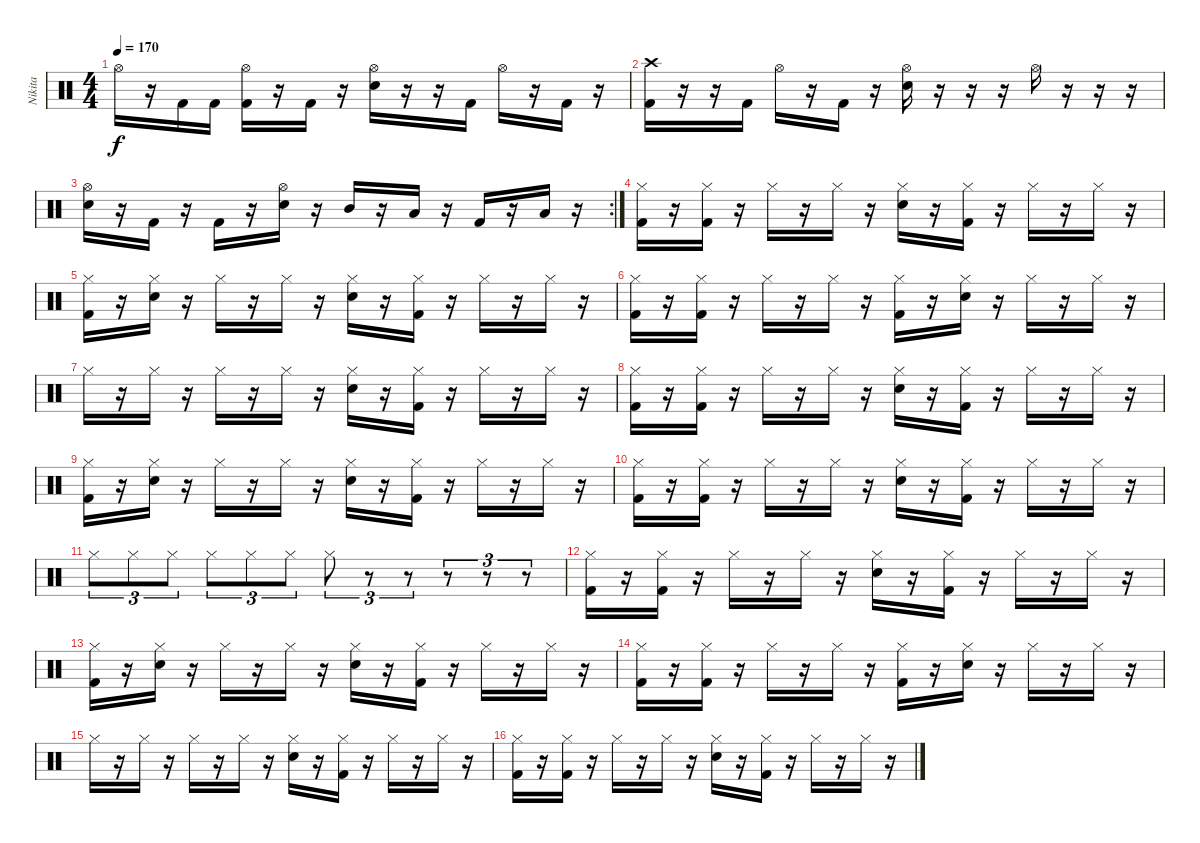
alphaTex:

\track ("Nikita" "Nikita") {instrument percussion}
\staff {score}
\articulation defaults
\ts (4 4)
\tempo 170
\clef neutral
\ks c "Hi-Hat (open)".16{dy f}
r.16 "Kick (hit) 2".16 "Kick (hit) 2".16 ("Hi-Hat (open)" "Kick (hit) 2").16 r.16 "Kick (hit) 2".16 r.16 ("Hi-Hat (open)" "Electric Snare (hit)").16 r.16 r.16 "Kick (hit) 2".16 "Hi-Hat (open)".16 r.16 "Kick (hit) 2".16 r.16 |
("Crash high (hit)" "Kick (hit) 2").16 r.16 r.16 "Kick (hit) 2".16 "Hi-Hat (open)".16 r.16 "Kick (hit) 2".16 r.16 ("Hi-Hat (open)" "Electric Snare (hit)").16 r.16 r.16 r.16 "Hi-Hat (open)".16 r.16 r.16 r.16 |
\rc 2
("Hi-Hat (open)" "Electric Snare (hit)").16 r.16 "Kick (hit) 2".16 r.16 "Kick (hit) 2".16 r.16 ("Hi-Hat (open)" "Electric Snare (hit)").16 r.16 "Mid Tom (hit)".16 r.16 "Low Tom (hit)".16 r.16 "Kick (hit) 2".16 r.16 "Low Tom (hit)".16 r.16 |
("Hi-Hat (closed)" "Kick (hit) 2").16 r.16 ("Hi-Hat (closed)" "Kick (hit) 2").16 r.16 "Hi-Hat (closed)".16 r.16 "Hi-Hat (closed)".16 r.16 ("Hi-Hat (closed)" "Electric Snare (hit)").16 r.16 ("Hi-Hat (closed)" "Kick (hit) 2").16 r.16 "Hi-Hat (closed)".16 r.16 "Hi-Hat (closed)".16 r.16 |
("Hi-Hat (closed)" "Kick (hit) 2").16 r.16 ("Hi-Hat (closed)" "Electric Snare (hit)").16 r.16 "Hi-Hat (closed)".16 r.16 "Hi-Hat (closed)".16 r.16 ("Hi-Hat (closed)" "Electric Snare (hit)").16 r.16 ("Hi-Hat (closed)" "Kick (hit) 2").16 r.16 "Hi-Hat (closed)".16 r.16 "Hi-Hat (closed)".16 r.16 |
("Hi-Hat (closed)" "Kick (hit) 2").16 r.16 ("Hi-Hat (closed)" "Kick (hit) 2").16 r.16 "Hi-Hat (closed)".16 r.16 "Hi-Hat (closed)".16 r.16 ("Hi-Hat (closed)" "Kick (hit) 2").16 r.16 ("Hi-Hat (closed)" "Electric Snare (hit)").16 r.16 "Hi-Hat (closed)".16 r.16 "Hi-Hat (closed)".16 r.16 |
"Hi-Hat (closed)".16 r.16 "Hi-Hat (closed)".16 r.16 "Hi-Hat (closed)".16 r.16 "Hi-Hat (closed)".16 r.16 ("Hi-Hat (closed)" "Electric Snare (hit)").16 r.16 ("Hi-Hat (closed)" "Kick (hit) 2").16 r.16 "Hi-Hat (closed)".16 r.16 "Hi-Hat (closed)".16 r.16 |
("Hi-Hat (closed)" "Kick (hit) 2").16 r.16 ("Hi-Hat (closed)" "Kick (hit) 2").16 r.16 "Hi-Hat (closed)".16 r.16 "Hi-Hat (closed)".16 r.16 ("Hi-Hat (closed)" "Electric Snare (hit)").16 r.16 ("Hi-Hat (closed)" "Kick (hit) 2").16 r.16 "Hi-Hat (closed)".16 r.16 "Hi-Hat (closed)".16 r.16 |
("Hi-Hat (closed)" "Kick (hit) 2").16 r.16 ("Hi-Hat (closed)" "Electric Snare (hit)").16 r.16 "Hi-Hat (closed)".16 r.16 "Hi-Hat (closed)".16 r.16 ("Hi-Hat (closed)" "Electric Snare (hit)").16 r.16 ("Hi-Hat (closed)" "Kick (hit) 2").16 r.16 "Hi-Hat (closed)".16 r.16 "Hi-Hat (closed)".16 r.16 |
("Hi-Hat (closed)" "Kick (hit) 2").16 r.16 ("Hi-Hat (closed)" "Kick (hit) 2").16 r.16 "Hi-Hat (closed)".16 r.16 "Hi-Hat (closed)".16 r.16 ("Hi-Hat (closed)" "Electric Snare (hit)").16 r.16 ("Hi-Hat (closed)" "Kick (hit) 2").16 r.16 "Hi-Hat (closed)".16 r.16 "Hi-Hat (closed)".16 r.16 |
"Hi-Hat (closed)".8{tu (3 2)} "Hi-Hat (closed)".8{tu (3 2)} "Hi-Hat (closed)".8{tu (3 2)} "Hi-Hat (closed)".8{tu (3 2)} "Hi-Hat (closed)".8{tu (3 2)} "Hi-Hat (closed)".8{tu (3 2)} "Hi-Hat (closed)".8{tu (3 2)} r.8{tu (3 2)} r.8{tu (3 2)} r.8{tu (3 2)} r.8{tu (3 2)} r.8{tu (3 2)} |
("Hi-Hat (closed)" "Kick (hit) 2").16 r.16 ("Hi-Hat (closed)" "Kick (hit) 2").16 r.16 "Hi-Hat (closed)".16 r.16 "Hi-Hat (closed)".16 r.16 ("Hi-Hat (closed)" "Electric Snare (hit)").16 r.16 ("Hi-Hat (closed)" "Kick (hit) 2").16 r.16 "Hi-Hat (closed)".16 r.16 "Hi-Hat (closed)".16 r.16 |
("Hi-Hat (closed)" "Kick (hit) 2").16 r.16 ("Hi-Hat (closed)" "Electric Snare (hit)").16 r.16 "Hi-Hat (closed)".16 r.16 "Hi-Hat (closed)".16 r.16 ("Hi-Hat (closed)" "Electric Snare (hit)").16 r.16 ("Hi-Hat (closed)" "Kick (hit) 2").16 r.16 "Hi-Hat (closed)".16 r.16 "Hi-Hat (closed)".16 r.16 |
("Hi-Hat (closed)" "Kick (hit) 2").16 r.16 ("Hi-Hat (closed)" "Kick (hit) 2").16 r.16 "Hi-Hat (closed)".16 r.16 "Hi-Hat (closed)".16 r.16 ("Hi-Hat (closed)" "Kick (hit) 2").16 r.16 ("Hi-Hat (closed)" "Electric Snare (hit)").16 r.16 "Hi-Hat (closed)".16 r.16 "Hi-Hat (closed)".16 r.16 |
"Hi-Hat (closed)".16 r.16 "Hi-Hat (closed)".16 r.16 "Hi-Hat (closed)".16 r.16 "Hi-Hat (closed)".16 r.16 ("Hi-Hat (closed)" "Electric Snare (hit)").16 r.16 ("Hi-Hat (closed)" "Kick (hit) 2").16 r.16 "Hi-Hat (closed)".16 r.16 "Hi-Hat (closed)".16 r.16 |
("Hi-Hat (closed)" "Kick (hit) 2").16 r.16 ("Hi-Hat (closed)" "Kick (hit) 2").16 r.16 "Hi-Hat (closed)".16 r.16 "Hi-Hat (closed)".16 r.16 ("Hi-Hat (closed)" "Electric Snare (hit)").16 r.16 ("Hi-Hat (closed)" "Kick (hit) 2").16 r.16 "Hi-Hat (closed)".16 r.16 "Hi-Hat (closed)".16 r.16
